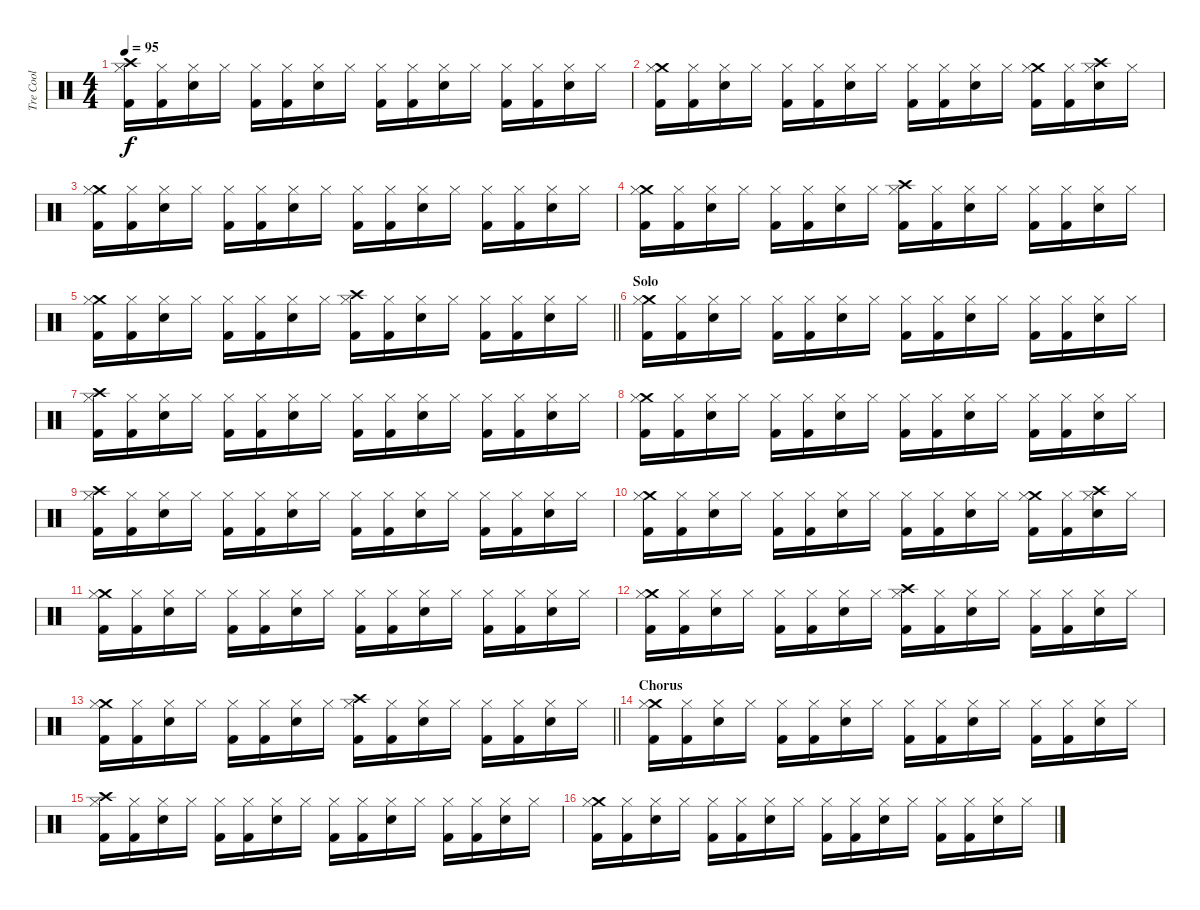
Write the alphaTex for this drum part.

\track ("Tre Cool" "Tre Cool") {instrument percussion}
\staff {score}
\articulation defaults
\ts (4 4)
\tempo 95
\clef neutral
\ks c
("Crash high (hit)" "Hi-Hat (closed)" "Kick (hit) 2").16{dy f} ("Hi-Hat (closed)" "Kick (hit) 2").16 ("Hi-Hat (closed)" "Electric Snare (hit)").16 "Hi-Hat (closed)".16 ("Hi-Hat (closed)" "Kick (hit) 2").16 ("Hi-Hat (closed)" "Kick (hit) 2").16 ("Hi-Hat (closed)" "Electric Snare (hit)").16 "Hi-Hat (closed)".16 ("Hi-Hat (closed)" "Kick (hit) 2").16 ("Hi-Hat (closed)" "Kick (hit) 2").16 ("Hi-Hat (closed)" "Electric Snare (hit)").16 "Hi-Hat (closed)".16 ("Hi-Hat (closed)" "Kick (hit) 2").16 ("Hi-Hat (closed)" "Kick (hit) 2").16 ("Hi-Hat (closed)" "Electric Snare (hit)").16 "Hi-Hat (closed)".16 |
("Crash medium (hit)" "Hi-Hat (closed)" "Kick (hit) 2").16 ("Hi-Hat (closed)" "Kick (hit) 2").16 ("Hi-Hat (closed)" "Electric Snare (hit)").16 "Hi-Hat (closed)".16 ("Hi-Hat (closed)" "Kick (hit) 2").16 ("Hi-Hat (closed)" "Kick (hit) 2").16 ("Hi-Hat (closed)" "Electric Snare (hit)").16 "Hi-Hat (closed)".16 ("Hi-Hat (closed)" "Kick (hit) 2").16 ("Hi-Hat (closed)" "Kick (hit) 2").16 ("Hi-Hat (closed)" "Electric Snare (hit)").16 "Hi-Hat (closed)".16 ("Crash medium (hit)" "Hi-Hat (closed)" "Kick (hit) 2").16 ("Hi-Hat (closed)" "Kick (hit) 2").16 ("Crash high (hit)" "Hi-Hat (closed)" "Electric Snare (hit)").16 "Hi-Hat (closed)".16 |
("Crash medium (hit)" "Hi-Hat (closed)" "Kick (hit) 2").16 ("Hi-Hat (closed)" "Kick (hit) 2").16 ("Hi-Hat (closed)" "Electric Snare (hit)").16 "Hi-Hat (closed)".16 ("Hi-Hat (closed)" "Kick (hit) 2").16 ("Hi-Hat (closed)" "Kick (hit) 2").16 ("Hi-Hat (closed)" "Electric Snare (hit)").16 "Hi-Hat (closed)".16 ("Hi-Hat (closed)" "Kick (hit) 2").16 ("Hi-Hat (closed)" "Kick (hit) 2").16 ("Hi-Hat (closed)" "Electric Snare (hit)").16 "Hi-Hat (closed)".16 ("Hi-Hat (closed)" "Kick (hit) 2").16 ("Hi-Hat (closed)" "Kick (hit) 2").16 ("Hi-Hat (closed)" "Electric Snare (hit)").16 "Hi-Hat (closed)".16 |
("Crash medium (hit)" "Hi-Hat (closed)" "Kick (hit) 2").16 ("Hi-Hat (closed)" "Kick (hit) 2").16 ("Hi-Hat (closed)" "Electric Snare (hit)").16 "Hi-Hat (closed)".16 ("Hi-Hat (closed)" "Kick (hit) 2").16 ("Hi-Hat (closed)" "Kick (hit) 2").16 ("Hi-Hat (closed)" "Electric Snare (hit)").16 "Hi-Hat (closed)".16 ("Crash high (hit)" "Hi-Hat (closed)" "Kick (hit) 2").16 ("Hi-Hat (closed)" "Kick (hit) 2").16 ("Hi-Hat (closed)" "Electric Snare (hit)").16 "Hi-Hat (closed)".16 ("Hi-Hat (closed)" "Kick (hit) 2").16 ("Hi-Hat (closed)" "Kick (hit) 2").16 ("Hi-Hat (closed)" "Electric Snare (hit)").16 "Hi-Hat (closed)".16 |
\barLineRight lightlight
("Crash medium (hit)" "Hi-Hat (closed)" "Kick (hit) 2").16 ("Hi-Hat (closed)" "Kick (hit) 2").16 ("Hi-Hat (closed)" "Electric Snare (hit)").16 "Hi-Hat (closed)".16 ("Hi-Hat (closed)" "Kick (hit) 2").16 ("Hi-Hat (closed)" "Kick (hit) 2").16 ("Hi-Hat (closed)" "Electric Snare (hit)").16 "Hi-Hat (closed)".16 ("Crash high (hit)" "Hi-Hat (closed)" "Kick (hit) 2").16 ("Hi-Hat (closed)" "Kick (hit) 2").16 ("Hi-Hat (closed)" "Electric Snare (hit)").16 "Hi-Hat (closed)".16 ("Hi-Hat (closed)" "Kick (hit) 2").16 ("Hi-Hat (closed)" "Kick (hit) 2").16 ("Hi-Hat (closed)" "Electric Snare (hit)").16 "Hi-Hat (closed)".16 |
\section ("" "Solo")
("Crash medium (hit)" "Hi-Hat (closed)" "Kick (hit) 2").16 ("Hi-Hat (closed)" "Kick (hit) 2").16 ("Hi-Hat (closed)" "Electric Snare (hit)").16 "Hi-Hat (closed)".16 ("Hi-Hat (closed)" "Kick (hit) 2").16 ("Hi-Hat (closed)" "Kick (hit) 2").16 ("Hi-Hat (closed)" "Electric Snare (hit)").16 "Hi-Hat (closed)".16 ("Hi-Hat (closed)" "Kick (hit) 2").16 ("Hi-Hat (closed)" "Kick (hit) 2").16 ("Hi-Hat (closed)" "Electric Snare (hit)").16 "Hi-Hat (closed)".16 ("Hi-Hat (closed)" "Kick (hit) 2").16 ("Hi-Hat (closed)" "Kick (hit) 2").16 ("Hi-Hat (closed)" "Electric Snare (hit)").16 "Hi-Hat (closed)".16 |
("Crash high (hit)" "Hi-Hat (closed)" "Kick (hit) 2").16 ("Hi-Hat (closed)" "Kick (hit) 2").16 ("Hi-Hat (closed)" "Electric Snare (hit)").16 "Hi-Hat (closed)".16 ("Hi-Hat (closed)" "Kick (hit) 2").16 ("Hi-Hat (closed)" "Kick (hit) 2").16 ("Hi-Hat (closed)" "Electric Snare (hit)").16 "Hi-Hat (closed)".16 ("Hi-Hat (closed)" "Kick (hit) 2").16 ("Hi-Hat (closed)" "Kick (hit) 2").16 ("Hi-Hat (closed)" "Electric Snare (hit)").16 "Hi-Hat (closed)".16 ("Hi-Hat (closed)" "Kick (hit) 2").16 ("Hi-Hat (closed)" "Kick (hit) 2").16 ("Hi-Hat (closed)" "Electric Snare (hit)").16 "Hi-Hat (closed)".16 |
("Crash medium (hit)" "Hi-Hat (closed)" "Kick (hit) 2").16 ("Hi-Hat (closed)" "Kick (hit) 2").16 ("Hi-Hat (closed)" "Electric Snare (hit)").16 "Hi-Hat (closed)".16 ("Hi-Hat (closed)" "Kick (hit) 2").16 ("Hi-Hat (closed)" "Kick (hit) 2").16 ("Hi-Hat (closed)" "Electric Snare (hit)").16 "Hi-Hat (closed)".16 ("Hi-Hat (closed)" "Kick (hit) 2").16 ("Hi-Hat (closed)" "Kick (hit) 2").16 ("Hi-Hat (closed)" "Electric Snare (hit)").16 "Hi-Hat (closed)".16 ("Hi-Hat (closed)" "Kick (hit) 2").16 ("Hi-Hat (closed)" "Kick (hit) 2").16 ("Hi-Hat (closed)" "Electric Snare (hit)").16 "Hi-Hat (closed)".16 |
("Crash high (hit)" "Hi-Hat (closed)" "Kick (hit) 2").16 ("Hi-Hat (closed)" "Kick (hit) 2").16 ("Hi-Hat (closed)" "Electric Snare (hit)").16 "Hi-Hat (closed)".16 ("Hi-Hat (closed)" "Kick (hit) 2").16 ("Hi-Hat (closed)" "Kick (hit) 2").16 ("Hi-Hat (closed)" "Electric Snare (hit)").16 "Hi-Hat (closed)".16 ("Hi-Hat (closed)" "Kick (hit) 2").16 ("Hi-Hat (closed)" "Kick (hit) 2").16 ("Hi-Hat (closed)" "Electric Snare (hit)").16 "Hi-Hat (closed)".16 ("Hi-Hat (closed)" "Kick (hit) 2").16 ("Hi-Hat (closed)" "Kick (hit) 2").16 ("Hi-Hat (closed)" "Electric Snare (hit)").16 "Hi-Hat (closed)".16 |
("Crash medium (hit)" "Hi-Hat (closed)" "Kick (hit) 2").16 ("Hi-Hat (closed)" "Kick (hit) 2").16 ("Hi-Hat (closed)" "Electric Snare (hit)").16 "Hi-Hat (closed)".16 ("Hi-Hat (closed)" "Kick (hit) 2").16 ("Hi-Hat (closed)" "Kick (hit) 2").16 ("Hi-Hat (closed)" "Electric Snare (hit)").16 "Hi-Hat (closed)".16 ("Hi-Hat (closed)" "Kick (hit) 2").16 ("Hi-Hat (closed)" "Kick (hit) 2").16 ("Hi-Hat (closed)" "Electric Snare (hit)").16 "Hi-Hat (closed)".16 ("Crash medium (hit)" "Hi-Hat (closed)" "Kick (hit) 2").16 ("Hi-Hat (closed)" "Kick (hit) 2").16 ("Crash high (hit)" "Hi-Hat (closed)" "Electric Snare (hit)").16 "Hi-Hat (closed)".16 |
("Crash medium (hit)" "Hi-Hat (closed)" "Kick (hit) 2").16 ("Hi-Hat (closed)" "Kick (hit) 2").16 ("Hi-Hat (closed)" "Electric Snare (hit)").16 "Hi-Hat (closed)".16 ("Hi-Hat (closed)" "Kick (hit) 2").16 ("Hi-Hat (closed)" "Kick (hit) 2").16 ("Hi-Hat (closed)" "Electric Snare (hit)").16 "Hi-Hat (closed)".16 ("Hi-Hat (closed)" "Kick (hit) 2").16 ("Hi-Hat (closed)" "Kick (hit) 2").16 ("Hi-Hat (closed)" "Electric Snare (hit)").16 "Hi-Hat (closed)".16 ("Hi-Hat (closed)" "Kick (hit) 2").16 ("Hi-Hat (closed)" "Kick (hit) 2").16 ("Hi-Hat (closed)" "Electric Snare (hit)").16 "Hi-Hat (closed)".16 |
("Crash medium (hit)" "Hi-Hat (closed)" "Kick (hit) 2").16 ("Hi-Hat (closed)" "Kick (hit) 2").16 ("Hi-Hat (closed)" "Electric Snare (hit)").16 "Hi-Hat (closed)".16 ("Hi-Hat (closed)" "Kick (hit) 2").16 ("Hi-Hat (closed)" "Kick (hit) 2").16 ("Hi-Hat (closed)" "Electric Snare (hit)").16 "Hi-Hat (closed)".16 ("Crash high (hit)" "Hi-Hat (closed)" "Kick (hit) 2").16 ("Hi-Hat (closed)" "Kick (hit) 2").16 ("Hi-Hat (closed)" "Electric Snare (hit)").16 "Hi-Hat (closed)".16 ("Hi-Hat (closed)" "Kick (hit) 2").16 ("Hi-Hat (closed)" "Kick (hit) 2").16 ("Hi-Hat (closed)" "Electric Snare (hit)").16 "Hi-Hat (closed)".16 |
\barLineRight lightlight
("Crash medium (hit)" "Hi-Hat (closed)" "Kick (hit) 2").16 ("Hi-Hat (closed)" "Kick (hit) 2").16 ("Hi-Hat (closed)" "Electric Snare (hit)").16 "Hi-Hat (closed)".16 ("Hi-Hat (closed)" "Kick (hit) 2").16 ("Hi-Hat (closed)" "Kick (hit) 2").16 ("Hi-Hat (closed)" "Electric Snare (hit)").16 "Hi-Hat (closed)".16 ("Crash high (hit)" "Hi-Hat (closed)" "Kick (hit) 2").16 ("Hi-Hat (closed)" "Kick (hit) 2").16 ("Hi-Hat (closed)" "Electric Snare (hit)").16 "Hi-Hat (closed)".16 ("Hi-Hat (closed)" "Kick (hit) 2").16 ("Hi-Hat (closed)" "Kick (hit) 2").16 ("Hi-Hat (closed)" "Electric Snare (hit)").16 "Hi-Hat (closed)".16 |
\section ("" "Chorus")
("Crash medium (hit)" "Hi-Hat (closed)" "Kick (hit) 2").16 ("Hi-Hat (closed)" "Kick (hit) 2").16 ("Hi-Hat (closed)" "Electric Snare (hit)").16 "Hi-Hat (closed)".16 ("Hi-Hat (closed)" "Kick (hit) 2").16 ("Hi-Hat (closed)" "Kick (hit) 2").16 ("Hi-Hat (closed)" "Electric Snare (hit)").16 "Hi-Hat (closed)".16 ("Hi-Hat (closed)" "Kick (hit) 2").16 ("Hi-Hat (closed)" "Kick (hit) 2").16 ("Hi-Hat (closed)" "Electric Snare (hit)").16 "Hi-Hat (closed)".16 ("Hi-Hat (closed)" "Kick (hit) 2").16 ("Hi-Hat (closed)" "Kick (hit) 2").16 ("Hi-Hat (closed)" "Electric Snare (hit)").16 "Hi-Hat (closed)".16 |
("Crash high (hit)" "Hi-Hat (closed)" "Kick (hit) 2").16 ("Hi-Hat (closed)" "Kick (hit) 2").16 ("Hi-Hat (closed)" "Electric Snare (hit)").16 "Hi-Hat (closed)".16 ("Hi-Hat (closed)" "Kick (hit) 2").16 ("Hi-Hat (closed)" "Kick (hit) 2").16 ("Hi-Hat (closed)" "Electric Snare (hit)").16 "Hi-Hat (closed)".16 ("Hi-Hat (closed)" "Kick (hit) 2").16 ("Hi-Hat (closed)" "Kick (hit) 2").16 ("Hi-Hat (closed)" "Electric Snare (hit)").16 "Hi-Hat (closed)".16 ("Hi-Hat (closed)" "Kick (hit) 2").16 ("Hi-Hat (closed)" "Kick (hit) 2").16 ("Hi-Hat (closed)" "Electric Snare (hit)").16 "Hi-Hat (closed)".16 |
("Crash medium (hit)" "Hi-Hat (closed)" "Kick (hit) 2").16 ("Hi-Hat (closed)" "Kick (hit) 2").16 ("Hi-Hat (closed)" "Electric Snare (hit)").16 "Hi-Hat (closed)".16 ("Hi-Hat (closed)" "Kick (hit) 2").16 ("Hi-Hat (closed)" "Kick (hit) 2").16 ("Hi-Hat (closed)" "Electric Snare (hit)").16 "Hi-Hat (closed)".16 ("Hi-Hat (closed)" "Kick (hit) 2").16 ("Hi-Hat (closed)" "Kick (hit) 2").16 ("Hi-Hat (closed)" "Electric Snare (hit)").16 "Hi-Hat (closed)".16 ("Hi-Hat (closed)" "Kick (hit) 2").16 ("Hi-Hat (closed)" "Kick (hit) 2").16 ("Hi-Hat (closed)" "Electric Snare (hit)").16 "Hi-Hat (closed)".16
